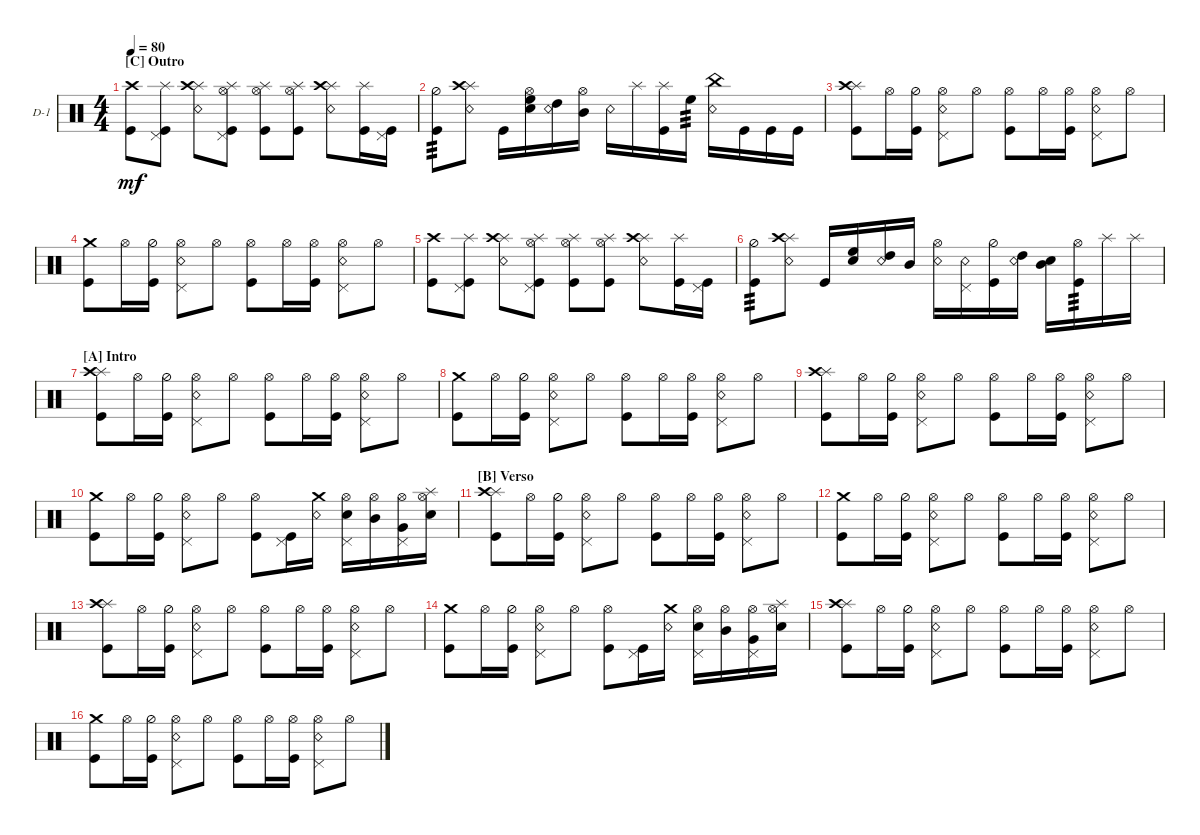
\defaultSystemsLayout 4
\bracketExtendMode groupsimilarinstruments
\firstSystemTrackNameOrientation horizontal
\otherSystemsTrackNameOrientation horizontal
\track ("Drums" "D-1") {multiBarRest instrument percussion}
\staff {score}
\articulation defaults
\ts (4 4)
\section ("C" "Outro")
\tempo 80
\clef neutral
\ks aminor
("Crash high (hit)" "Kick (hit)").8{dy mf} ("Kick (hit)" "Splash (hit)" "Pedal Hi-Hat (hit)").8 ("Splash (hit)" "Snare (rim shot)" "Crash high (hit)").8 ("Splash (hit)" "Pedal Hi-Hat (hit)" "Kick (hit)" "Hi-Hat (open)").8 ("Splash (hit)" "Kick (hit)" "Hi-Hat (open)").8 ("Splash (hit)" "Kick (hit)" "Hi-Hat (open)").8 ("Splash (hit)" "Snare (rim shot)" "Crash high (hit)").8 ("Splash (hit)" "Kick (hit)").16 ("Kick (hit)" "Pedal Hi-Hat (hit)").16 |
("Kick (hit)" "Hi-Hat (half)").8{tp 3} ("Snare (rim shot)" "Splash (hit)" "Crash high (hit)").8 "Kick (hit)".16 ("High Floor Tom (hit)" "Snare (hit) 2" "Hi-Hat (open)").16 ("High Tom (hit)" "Snare (rim shot)").16 ("Mid Tom (hit)" "Hi-Hat (open)").16 "Snare (rim shot)".16 "Splash (hit)".16 ("Splash (hit)" "Kick (hit)").16 "High Floor Tom (hit)".16{tp 3} ("Snare (rim shot)" "China (hit)").16 "Kick (hit)".16 "Kick (hit)".16 "Kick (hit)".16 |
("Kick (hit)" "Splash (hit)" "Crash high (hit)").8 "Hi-Hat (open)".16 ("Hi-Hat (half)" "Kick (hit)").16 ("Hi-Hat (open)" "Pedal Hi-Hat (hit)" "Snare (rim shot)").8 "Hi-Hat (open)".8 ("Kick (hit)" "Hi-Hat (open)").8 "Hi-Hat (open)".16 ("Hi-Hat (open)" "Kick (hit)").16 ("Hi-Hat (open)" "Pedal Hi-Hat (hit)" "Snare (rim shot)").8 "Hi-Hat (open)".8 |
("Kick (hit)" "Crash medium (hit)").8 "Hi-Hat (open)".16 ("Hi-Hat (half)" "Kick (hit)").16 ("Hi-Hat (open)" "Pedal Hi-Hat (hit)" "Snare (rim shot)").8 "Hi-Hat (open)".8 ("Kick (hit)" "Hi-Hat (open)").8 "Hi-Hat (open)".16 ("Hi-Hat (open)" "Kick (hit)").16 ("Hi-Hat (open)" "Pedal Hi-Hat (hit)" "Snare (rim shot)").8 "Hi-Hat (open)".8 |
("Crash high (hit)" "Kick (hit)").8 ("Kick (hit)" "Splash (hit)" "Pedal Hi-Hat (hit)").8 ("Splash (hit)" "Snare (rim shot)" "Crash high (hit)").8 ("Splash (hit)" "Pedal Hi-Hat (hit)" "Kick (hit)" "Hi-Hat (open)").8 ("Splash (hit)" "Kick (hit)" "Hi-Hat (open)").8 ("Splash (hit)" "Kick (hit)" "Hi-Hat (open)").8 ("Splash (hit)" "Snare (rim shot)" "Crash high (hit)").8 ("Splash (hit)" "Kick (hit)").16 ("Kick (hit)" "Pedal Hi-Hat (hit)").16 |
("Kick (hit)" "Hi-Hat (half)").8{tp 3} ("Snare (rim shot)" "Splash (hit)" "Crash high (hit)").8 "Kick (hit)".16 ("High Floor Tom (hit)" "Snare (hit) 2").16 ("High Tom (hit)" "Snare (rim shot)").16 "Mid Tom (hit)".16 ("Snare (rim shot)" "Hi-Hat (open)").16 ("Snare (rim shot)" "Pedal Hi-Hat (hit)").16 ("Kick (hit)" "Hi-Hat (half)").16 ("Snare (rim shot)" "High Tom (hit)").16 ("Snare (hit) 2" "Mid Tom (hit)").16 ("Kick (hit)" "Hi-Hat (open)").16{tp 3} "Splash (hit)".16 "Splash (hit)".16 |
\section ("A" "Intro")
("Kick (hit)" "Splash (hit)" "Crash high (hit)").8 "Hi-Hat (open)".16 ("Hi-Hat (half)" "Kick (hit)").16 ("Hi-Hat (open)" "Pedal Hi-Hat (hit)" "Snare (rim shot)").8 "Hi-Hat (open)".8 ("Kick (hit)" "Hi-Hat (open)").8 "Hi-Hat (open)".16 ("Hi-Hat (open)" "Kick (hit)").16 ("Hi-Hat (open)" "Pedal Hi-Hat (hit)" "Snare (rim shot)").8 "Hi-Hat (open)".8 |
("Kick (hit)" "Crash medium (hit)").8 "Hi-Hat (open)".16 ("Hi-Hat (half)" "Kick (hit)").16 ("Hi-Hat (open)" "Pedal Hi-Hat (hit)" "Snare (rim shot)").8 "Hi-Hat (open)".8 ("Kick (hit)" "Hi-Hat (open)").8 "Hi-Hat (open)".16 ("Hi-Hat (open)" "Kick (hit)").16 ("Hi-Hat (open)" "Pedal Hi-Hat (hit)" "Snare (rim shot)").8 "Hi-Hat (open)".8 |
("Kick (hit)" "Splash (hit)" "Crash high (hit)").8 "Hi-Hat (open)".16 ("Hi-Hat (half)" "Kick (hit)").16 ("Hi-Hat (open)" "Pedal Hi-Hat (hit)" "Snare (rim shot)").8 "Hi-Hat (open)".8 ("Kick (hit)" "Hi-Hat (open)").8 "Hi-Hat (open)".16 ("Hi-Hat (open)" "Kick (hit)").16 ("Hi-Hat (open)" "Pedal Hi-Hat (hit)" "Snare (rim shot)").8 "Hi-Hat (open)".8 |
("Kick (hit)" "Crash medium (hit)").8 "Hi-Hat (open)".16 ("Hi-Hat (half)" "Kick (hit)").16 ("Hi-Hat (open)" "Pedal Hi-Hat (hit)" "Snare (rim shot)").8 "Hi-Hat (open)".8 ("Kick (hit)" "Hi-Hat (open)").8 ("Kick (hit)" "Pedal Hi-Hat (hit)").16 ("Snare (rim shot)" "Crash medium (hit)").16 ("Snare (hit) 2" "Pedal Hi-Hat (hit)" "Hi-Hat (open)").16 ("Mid Tom (hit)" "Hi-Hat (open)").16 ("Very Low Tom (hit)" "Pedal Hi-Hat (hit)" "Hi-Hat (open)").16 ("Snare (hit) 2" "Hi-Hat (open)" "Splash (hit)").16 |
\section ("B" "Verso")
("Kick (hit)" "Splash (hit)" "Crash high (hit)").8 "Hi-Hat (open)".16 ("Hi-Hat (half)" "Kick (hit)").16 ("Hi-Hat (open)" "Pedal Hi-Hat (hit)" "Snare (rim shot)").8 "Hi-Hat (open)".8 ("Kick (hit)" "Hi-Hat (open)").8 "Hi-Hat (open)".16 ("Hi-Hat (open)" "Kick (hit)").16 ("Hi-Hat (open)" "Pedal Hi-Hat (hit)" "Snare (rim shot)").8 "Hi-Hat (open)".8 |
("Kick (hit)" "Crash medium (hit)").8 "Hi-Hat (open)".16 ("Hi-Hat (half)" "Kick (hit)").16 ("Hi-Hat (open)" "Pedal Hi-Hat (hit)" "Snare (rim shot)").8 "Hi-Hat (open)".8 ("Kick (hit)" "Hi-Hat (open)").8 "Hi-Hat (open)".16 ("Hi-Hat (open)" "Kick (hit)").16 ("Hi-Hat (open)" "Pedal Hi-Hat (hit)" "Snare (rim shot)").8 "Hi-Hat (open)".8 |
("Kick (hit)" "Splash (hit)" "Crash high (hit)").8 "Hi-Hat (open)".16 ("Hi-Hat (half)" "Kick (hit)").16 ("Hi-Hat (open)" "Pedal Hi-Hat (hit)" "Snare (rim shot)").8 "Hi-Hat (open)".8 ("Kick (hit)" "Hi-Hat (open)").8 "Hi-Hat (open)".16 ("Hi-Hat (open)" "Kick (hit)").16 ("Hi-Hat (open)" "Pedal Hi-Hat (hit)" "Snare (rim shot)").8 "Hi-Hat (open)".8 |
("Kick (hit)" "Crash medium (hit)").8 "Hi-Hat (open)".16 ("Hi-Hat (half)" "Kick (hit)").16 ("Hi-Hat (open)" "Pedal Hi-Hat (hit)" "Snare (rim shot)").8 "Hi-Hat (open)".8 ("Kick (hit)" "Hi-Hat (open)").8 ("Kick (hit)" "Pedal Hi-Hat (hit)").16 ("Snare (rim shot)" "Crash medium (hit)").16 ("Snare (hit) 2" "Pedal Hi-Hat (hit)" "Hi-Hat (open)").16 ("Mid Tom (hit)" "Hi-Hat (open)").16 ("Very Low Tom (hit)" "Pedal Hi-Hat (hit)" "Hi-Hat (open)").16 ("Snare (hit) 2" "Hi-Hat (open)" "Splash (hit)").16 |
("Kick (hit)" "Splash (hit)" "Crash high (hit)").8 "Hi-Hat (open)".16 ("Hi-Hat (half)" "Kick (hit)").16 ("Hi-Hat (open)" "Pedal Hi-Hat (hit)" "Snare (rim shot)").8 "Hi-Hat (open)".8 ("Kick (hit)" "Hi-Hat (open)").8 "Hi-Hat (open)".16 ("Hi-Hat (open)" "Kick (hit)").16 ("Hi-Hat (open)" "Pedal Hi-Hat (hit)" "Snare (rim shot)").8 "Hi-Hat (open)".8 |
("Kick (hit)" "Crash medium (hit)").8 "Hi-Hat (open)".16 ("Hi-Hat (half)" "Kick (hit)").16 ("Hi-Hat (open)" "Pedal Hi-Hat (hit)" "Snare (rim shot)").8 "Hi-Hat (open)".8 ("Kick (hit)" "Hi-Hat (open)").8 "Hi-Hat (open)".16 ("Hi-Hat (open)" "Kick (hit)").16 ("Hi-Hat (open)" "Pedal Hi-Hat (hit)" "Snare (rim shot)").8 "Hi-Hat (open)".8
